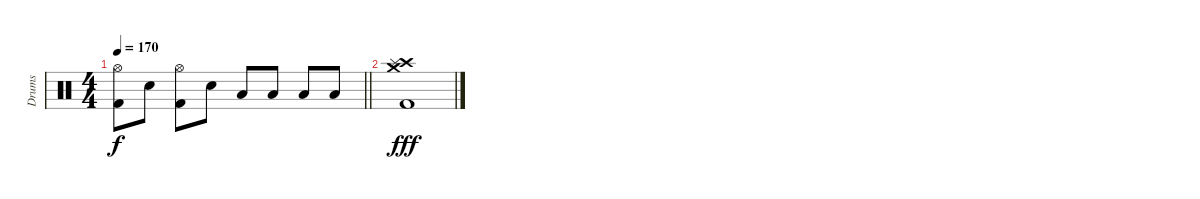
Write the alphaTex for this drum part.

\track ("Drums" "Drums") {instrument percussion}
\staff {score}
\articulation defaults
\ts (4 4)
\tempo 170
\clef neutral
\barLineRight lightlight
\ks c
("Hi-Hat (open)" "Kick (hit) 2").8{dy f} "Electric Snare (hit)".8 ("Hi-Hat (open)" "Kick (hit) 2").8 "Electric Snare (hit)".8 "Low Tom (hit)".8 "Low Tom (hit)".8 "Low Floor Tom (hit)".8 "Low Floor Tom (hit)".8 |
("Kick (hit) 2" "Crash medium (hit)" "Crash high (hit)" "Splash (hit)").1{dy fff}
